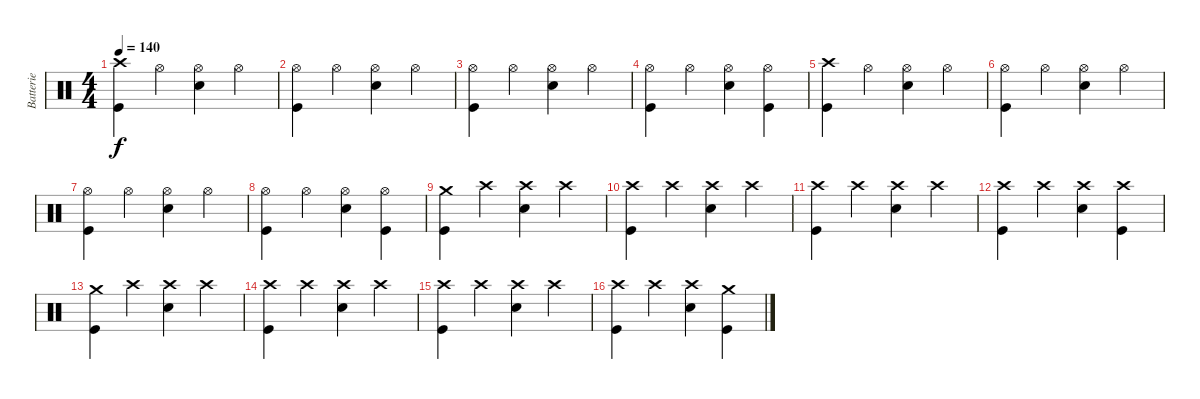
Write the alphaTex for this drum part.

\track ("Batterie" "Batterie") {instrument percussion}
\staff {score}
\articulation defaults
\ts (4 4)
\tempo 140
\clef neutral
\ks c
("Crash high (hit)" "Kick (hit)").4{dy f} "Hi-Hat (open)".4 ("Hi-Hat (open)" "Electric Snare (hit)").4 "Hi-Hat (open)".4 |
("Hi-Hat (open)" "Kick (hit)").4 "Hi-Hat (open)".4 ("Hi-Hat (open)" "Electric Snare (hit)").4 "Hi-Hat (open)".4 |
("Hi-Hat (open)" "Kick (hit)").4 "Hi-Hat (open)".4 ("Hi-Hat (open)" "Electric Snare (hit)").4 "Hi-Hat (open)".4 |
("Hi-Hat (open)" "Kick (hit)").4 "Hi-Hat (open)".4 ("Hi-Hat (open)" "Electric Snare (hit)").4 ("Hi-Hat (open)" "Kick (hit)").4 |
("Crash high (hit)" "Kick (hit)").4 "Hi-Hat (open)".4 ("Hi-Hat (open)" "Electric Snare (hit)").4 "Hi-Hat (open)".4 |
("Hi-Hat (open)" "Kick (hit)").4 "Hi-Hat (open)".4 ("Hi-Hat (open)" "Electric Snare (hit)").4 "Hi-Hat (open)".4 |
("Hi-Hat (open)" "Kick (hit)").4 "Hi-Hat (open)".4 ("Hi-Hat (open)" "Electric Snare (hit)").4 "Hi-Hat (open)".4 |
("Hi-Hat (open)" "Kick (hit)").4 "Hi-Hat (open)".4 ("Hi-Hat (open)" "Electric Snare (hit)").4 ("Hi-Hat (open)" "Kick (hit)").4 |
("Crash medium (hit)" "Kick (hit)").4 "Crash high (hit)".4 ("Crash high (hit)" "Electric Snare (hit)").4 "Crash high (hit)".4 |
("Crash high (hit)" "Kick (hit)").4 "Crash high (hit)".4 ("Crash high (hit)" "Electric Snare (hit)").4 "Crash high (hit)".4 |
("Crash high (hit)" "Kick (hit)").4 "Crash high (hit)".4 ("Crash high (hit)" "Electric Snare (hit)").4 "Crash high (hit)".4 |
("Crash high (hit)" "Kick (hit)").4 "Crash high (hit)".4 ("Crash high (hit)" "Electric Snare (hit)").4 ("Crash high (hit)" "Kick (hit)").4 |
("Crash medium (hit)" "Kick (hit)").4 "Crash high (hit)".4 ("Crash high (hit)" "Electric Snare (hit)").4 "Crash high (hit)".4 |
("Crash high (hit)" "Kick (hit)").4 "Crash high (hit)".4 ("Crash high (hit)" "Electric Snare (hit)").4 "Crash high (hit)".4 |
("Crash high (hit)" "Kick (hit)").4 "Crash high (hit)".4 ("Crash high (hit)" "Electric Snare (hit)").4 "Crash high (hit)".4 |
("Crash high (hit)" "Kick (hit)").4 "Crash high (hit)".4 ("Crash high (hit)" "Electric Snare (hit)").4 ("Crash medium (hit)" "Kick (hit)").4
